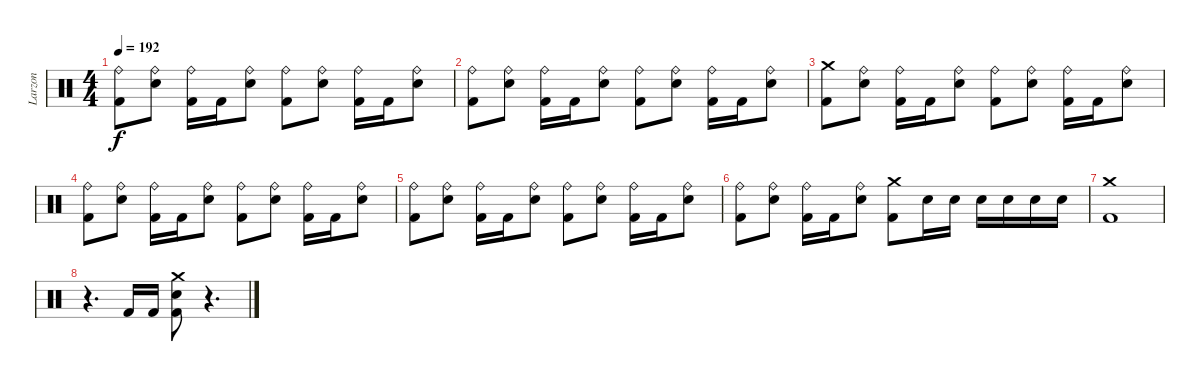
\track ("Larzon" "Larzon") {instrument percussion}
\staff {score}
\articulation defaults
\ts (4 4)
\tempo 192
\clef neutral
\ks c
("Ride (bell)" "Kick (hit) 2").8{dy f} ("Ride (bell)" "Electric Snare (hit)").8 ("Ride (bell)" "Kick (hit) 2").16 "Kick (hit) 2".16 ("Ride (bell)" "Electric Snare (hit)").8 ("Ride (bell)" "Kick (hit) 2").8 ("Ride (bell)" "Electric Snare (hit)").8 ("Ride (bell)" "Kick (hit) 2").16 "Kick (hit) 2".16 ("Ride (bell)" "Electric Snare (hit)").8 |
("Ride (bell)" "Kick (hit) 2").8 ("Ride (bell)" "Electric Snare (hit)").8 ("Ride (bell)" "Kick (hit) 2").16 "Kick (hit) 2".16 ("Ride (bell)" "Electric Snare (hit)").8 ("Ride (bell)" "Kick (hit) 2").8 ("Ride (bell)" "Electric Snare (hit)").8 ("Ride (bell)" "Kick (hit) 2").16 "Kick (hit) 2".16 ("Ride (bell)" "Electric Snare (hit)").8 |
("Crash medium (hit)" "Kick (hit) 2").8 ("Ride (bell)" "Electric Snare (hit)").8 ("Ride (bell)" "Kick (hit) 2").16 "Kick (hit) 2".16 ("Ride (bell)" "Electric Snare (hit)").8 ("Ride (bell)" "Kick (hit) 2").8 ("Ride (bell)" "Electric Snare (hit)").8 ("Ride (bell)" "Kick (hit) 2").16 "Kick (hit) 2".16 ("Ride (bell)" "Electric Snare (hit)").8 |
("Ride (bell)" "Kick (hit) 2").8 ("Ride (bell)" "Electric Snare (hit)").8 ("Ride (bell)" "Kick (hit) 2").16 "Kick (hit) 2".16 ("Ride (bell)" "Electric Snare (hit)").8 ("Ride (bell)" "Kick (hit) 2").8 ("Ride (bell)" "Electric Snare (hit)").8 ("Ride (bell)" "Kick (hit) 2").16 "Kick (hit) 2".16 ("Ride (bell)" "Electric Snare (hit)").8 |
("Ride (bell)" "Kick (hit) 2").8 ("Ride (bell)" "Electric Snare (hit)").8 ("Ride (bell)" "Kick (hit) 2").16 "Kick (hit) 2".16 ("Ride (bell)" "Electric Snare (hit)").8 ("Ride (bell)" "Kick (hit) 2").8 ("Ride (bell)" "Electric Snare (hit)").8 ("Ride (bell)" "Kick (hit) 2").16 "Kick (hit) 2".16 ("Ride (bell)" "Electric Snare (hit)").8 |
("Ride (bell)" "Kick (hit) 2").8 ("Ride (bell)" "Electric Snare (hit)").8 ("Ride (bell)" "Kick (hit) 2").16 "Kick (hit) 2".16 ("Ride (bell)" "Electric Snare (hit)").8 ("Crash medium (hit)" "Kick (hit) 2").8 "Electric Snare (hit)".16 "Electric Snare (hit)".16 "Electric Snare (hit)".16 "Electric Snare (hit)".16 "Electric Snare (hit)".16 "Electric Snare (hit)".16 |
("Crash medium (hit)" "Kick (hit) 2").1 |
r.4{d} "Kick (hit) 2".16 "Kick (hit) 2".16 ("Crash medium (hit)" "Electric Snare (hit)" "Kick (hit) 2").8 r.4{d}
